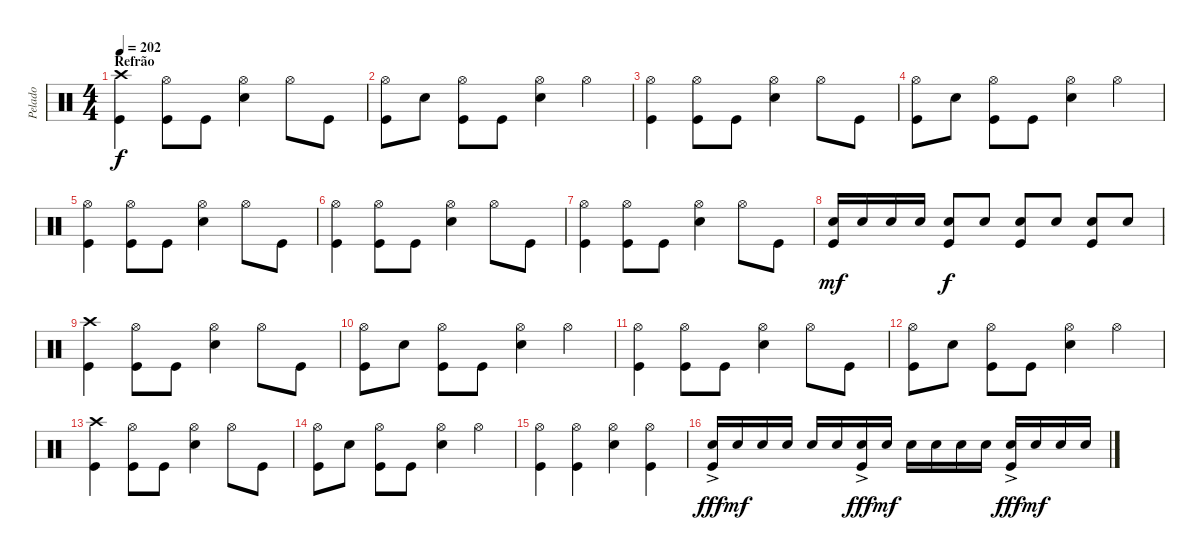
\track ("Pelado" "Pelado") {instrument percussion}
\staff {score}
\articulation defaults
\ts (4 4)
\section ("" "Refrão")
\tempo 202
\clef neutral
\ks c
("Crash high (hit)" "Kick (hit)").4{dy f} ("Hi-Hat (open)" "Kick (hit)").8 "Kick (hit)".8 ("Hi-Hat (open)" "Electric Snare (hit)").4 "Hi-Hat (open)".8 "Kick (hit)".8 |
("Hi-Hat (open)" "Kick (hit)").8 "Electric Snare (hit)".8 ("Hi-Hat (open)" "Kick (hit)").8 "Kick (hit)".8 ("Hi-Hat (open)" "Electric Snare (hit)").4 "Hi-Hat (open)".4 |
("Hi-Hat (open)" "Kick (hit)").4 ("Hi-Hat (open)" "Kick (hit)").8 "Kick (hit)".8 ("Hi-Hat (open)" "Electric Snare (hit)").4 "Hi-Hat (open)".8 "Kick (hit)".8 |
("Hi-Hat (open)" "Kick (hit)").8 "Electric Snare (hit)".8 ("Hi-Hat (open)" "Kick (hit)").8 "Kick (hit)".8 ("Hi-Hat (open)" "Electric Snare (hit)").4 "Hi-Hat (open)".4 |
("Hi-Hat (open)" "Kick (hit)").4 ("Hi-Hat (open)" "Kick (hit)").8 "Kick (hit)".8 ("Hi-Hat (open)" "Electric Snare (hit)").4 "Hi-Hat (open)".8 "Kick (hit)".8 |
("Hi-Hat (open)" "Kick (hit)").4 ("Hi-Hat (open)" "Kick (hit)").8 "Kick (hit)".8 ("Hi-Hat (open)" "Electric Snare (hit)").4 "Hi-Hat (open)".8 "Kick (hit)".8 |
("Hi-Hat (open)" "Kick (hit)").4 ("Hi-Hat (open)" "Kick (hit)").8 "Kick (hit)".8 ("Hi-Hat (open)" "Electric Snare (hit)").4 "Hi-Hat (open)".8 "Kick (hit)".8 |
("Electric Snare (hit)" "Kick (hit)").16{dy mf} "Electric Snare (hit)".16 "Electric Snare (hit)".16 "Electric Snare (hit)".16 ("Electric Snare (hit)" "Kick (hit)").8{dy f} "Electric Snare (hit)".8 ("Electric Snare (hit)" "Kick (hit)").8 "Electric Snare (hit)".8 ("Electric Snare (hit)" "Kick (hit)").8 "Electric Snare (hit)".8 |
("Crash high (hit)" "Kick (hit)").4 ("Hi-Hat (open)" "Kick (hit)").8 "Kick (hit)".8 ("Hi-Hat (open)" "Electric Snare (hit)").4 "Hi-Hat (open)".8 "Kick (hit)".8 |
("Hi-Hat (open)" "Kick (hit)").8 "Electric Snare (hit)".8 ("Hi-Hat (open)" "Kick (hit)").8 "Kick (hit)".8 ("Hi-Hat (open)" "Electric Snare (hit)").4 "Hi-Hat (open)".4 |
("Hi-Hat (open)" "Kick (hit)").4 ("Hi-Hat (open)" "Kick (hit)").8 "Kick (hit)".8 ("Hi-Hat (open)" "Electric Snare (hit)").4 "Hi-Hat (open)".8 "Kick (hit)".8 |
("Hi-Hat (open)" "Kick (hit)").8 "Electric Snare (hit)".8 ("Hi-Hat (open)" "Kick (hit)").8 "Kick (hit)".8 ("Hi-Hat (open)" "Electric Snare (hit)").4 "Hi-Hat (open)".4 |
("Crash high (hit)" "Kick (hit)").4 ("Hi-Hat (open)" "Kick (hit)").8 "Kick (hit)".8 ("Hi-Hat (open)" "Electric Snare (hit)").4 "Hi-Hat (open)".8 "Kick (hit)".8 |
("Hi-Hat (open)" "Kick (hit)").8 "Electric Snare (hit)".8 ("Hi-Hat (open)" "Kick (hit)").8 "Kick (hit)".8 ("Hi-Hat (open)" "Electric Snare (hit)").4 "Hi-Hat (open)".4 |
("Hi-Hat (open)" "Kick (hit)").4 ("Hi-Hat (open)" "Kick (hit)").4 ("Hi-Hat (open)" "Electric Snare (hit)").4 ("Hi-Hat (open)" "Kick (hit)").4 |
("Electric Snare (hit)"{ac} "Kick (hit)").16{dy fff} "Electric Snare (hit)".16{dy mf} "Electric Snare (hit)".16 "Electric Snare (hit)".16 "Electric Snare (hit)".16 "Electric Snare (hit)".16 ("Electric Snare (hit)"{ac} "Kick (hit)").16{dy fff} "Electric Snare (hit)".16{dy mf} "Electric Snare (hit)".16 "Electric Snare (hit)".16 "Electric Snare (hit)".16 "Electric Snare (hit)".16 ("Electric Snare (hit)"{ac} "Kick (hit)").16{dy fff} "Electric Snare (hit)".16{dy mf} "Electric Snare (hit)".16 "Electric Snare (hit)".16
